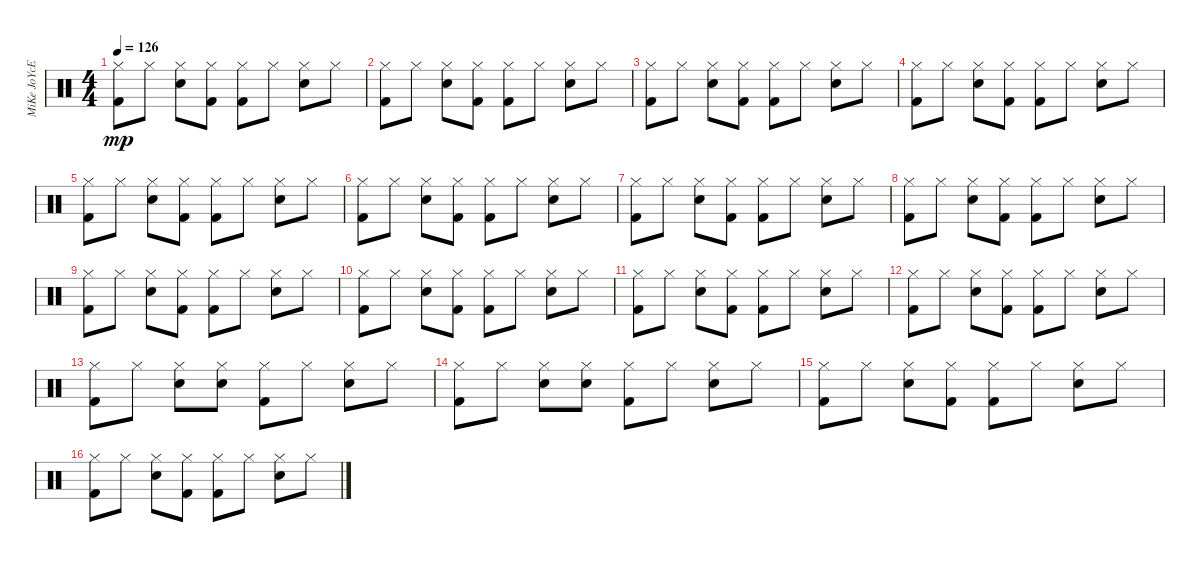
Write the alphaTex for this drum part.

\track ("MiKe JoYcE" "MiKe JoYcE") {instrument percussion}
\staff {score}
\articulation defaults
\ts (4 4)
\tempo 126
\clef neutral
\ks c
("Hi-Hat (closed)" "Kick (hit) 2").8{dy mp} "Hi-Hat (closed)".8 ("Hi-Hat (closed)" "Electric Snare (hit)").8 ("Hi-Hat (closed)" "Kick (hit) 2").8 ("Hi-Hat (closed)" "Kick (hit) 2").8 "Hi-Hat (closed)".8 ("Hi-Hat (closed)" "Electric Snare (hit)").8 "Hi-Hat (closed)".8 |
("Hi-Hat (closed)" "Kick (hit) 2").8 "Hi-Hat (closed)".8 ("Hi-Hat (closed)" "Electric Snare (hit)").8 ("Hi-Hat (closed)" "Kick (hit) 2").8 ("Hi-Hat (closed)" "Kick (hit) 2").8 "Hi-Hat (closed)".8 ("Hi-Hat (closed)" "Electric Snare (hit)").8 "Hi-Hat (closed)".8 |
("Hi-Hat (closed)" "Kick (hit) 2").8 "Hi-Hat (closed)".8 ("Hi-Hat (closed)" "Electric Snare (hit)").8 ("Hi-Hat (closed)" "Kick (hit) 2").8 ("Hi-Hat (closed)" "Kick (hit) 2").8 "Hi-Hat (closed)".8 ("Hi-Hat (closed)" "Electric Snare (hit)").8 "Hi-Hat (closed)".8 |
("Hi-Hat (closed)" "Kick (hit) 2").8 "Hi-Hat (closed)".8 ("Hi-Hat (closed)" "Electric Snare (hit)").8 ("Hi-Hat (closed)" "Kick (hit) 2").8 ("Hi-Hat (closed)" "Kick (hit) 2").8 "Hi-Hat (closed)".8 ("Hi-Hat (closed)" "Electric Snare (hit)").8 "Hi-Hat (closed)".8 |
("Hi-Hat (closed)" "Kick (hit) 2").8 "Hi-Hat (closed)".8 ("Hi-Hat (closed)" "Electric Snare (hit)").8 ("Hi-Hat (closed)" "Kick (hit) 2").8 ("Hi-Hat (closed)" "Kick (hit) 2").8 "Hi-Hat (closed)".8 ("Hi-Hat (closed)" "Electric Snare (hit)").8 "Hi-Hat (closed)".8 |
("Hi-Hat (closed)" "Kick (hit) 2").8 "Hi-Hat (closed)".8 ("Hi-Hat (closed)" "Electric Snare (hit)").8 ("Hi-Hat (closed)" "Kick (hit) 2").8 ("Hi-Hat (closed)" "Kick (hit) 2").8 "Hi-Hat (closed)".8 ("Hi-Hat (closed)" "Electric Snare (hit)").8 "Hi-Hat (closed)".8 |
("Hi-Hat (closed)" "Kick (hit) 2").8 "Hi-Hat (closed)".8 ("Hi-Hat (closed)" "Electric Snare (hit)").8 ("Hi-Hat (closed)" "Kick (hit) 2").8 ("Hi-Hat (closed)" "Kick (hit) 2").8 "Hi-Hat (closed)".8 ("Hi-Hat (closed)" "Electric Snare (hit)").8 "Hi-Hat (closed)".8 |
("Hi-Hat (closed)" "Kick (hit) 2").8 "Hi-Hat (closed)".8 ("Hi-Hat (closed)" "Electric Snare (hit)").8 ("Hi-Hat (closed)" "Kick (hit) 2").8 ("Hi-Hat (closed)" "Kick (hit) 2").8 "Hi-Hat (closed)".8 ("Hi-Hat (closed)" "Electric Snare (hit)").8 "Hi-Hat (closed)".8 |
("Hi-Hat (closed)" "Kick (hit) 2").8 "Hi-Hat (closed)".8 ("Hi-Hat (closed)" "Electric Snare (hit)").8 ("Hi-Hat (closed)" "Kick (hit) 2").8 ("Hi-Hat (closed)" "Kick (hit) 2").8 "Hi-Hat (closed)".8 ("Hi-Hat (closed)" "Electric Snare (hit)").8 "Hi-Hat (closed)".8 |
("Hi-Hat (closed)" "Kick (hit) 2").8 "Hi-Hat (closed)".8 ("Hi-Hat (closed)" "Electric Snare (hit)").8 ("Hi-Hat (closed)" "Kick (hit) 2").8 ("Hi-Hat (closed)" "Kick (hit) 2").8 "Hi-Hat (closed)".8 ("Hi-Hat (closed)" "Electric Snare (hit)").8 "Hi-Hat (closed)".8 |
("Hi-Hat (closed)" "Kick (hit) 2").8 "Hi-Hat (closed)".8 ("Hi-Hat (closed)" "Electric Snare (hit)").8 ("Hi-Hat (closed)" "Kick (hit) 2").8 ("Hi-Hat (closed)" "Kick (hit) 2").8 "Hi-Hat (closed)".8 ("Hi-Hat (closed)" "Electric Snare (hit)").8 "Hi-Hat (closed)".8 |
("Hi-Hat (closed)" "Kick (hit) 2").8 "Hi-Hat (closed)".8 ("Hi-Hat (closed)" "Electric Snare (hit)").8 ("Hi-Hat (closed)" "Kick (hit) 2").8 ("Hi-Hat (closed)" "Kick (hit) 2").8 "Hi-Hat (closed)".8 ("Hi-Hat (closed)" "Electric Snare (hit)").8 "Hi-Hat (closed)".8 |
("Hi-Hat (closed)" "Kick (hit) 2").8 "Hi-Hat (closed)".8 ("Hi-Hat (closed)" "Electric Snare (hit)").8 ("Hi-Hat (closed)" "Electric Snare (hit)").8 ("Hi-Hat (closed)" "Kick (hit) 2").8 "Hi-Hat (closed)".8 ("Hi-Hat (closed)" "Electric Snare (hit)").8 "Hi-Hat (closed)".8 |
("Hi-Hat (closed)" "Kick (hit) 2").8 "Hi-Hat (closed)".8 ("Hi-Hat (closed)" "Electric Snare (hit)").8 ("Hi-Hat (closed)" "Electric Snare (hit)").8 ("Hi-Hat (closed)" "Kick (hit) 2").8 "Hi-Hat (closed)".8 ("Hi-Hat (closed)" "Electric Snare (hit)").8 "Hi-Hat (closed)".8 |
("Hi-Hat (closed)" "Kick (hit) 2").8 "Hi-Hat (closed)".8 ("Hi-Hat (closed)" "Electric Snare (hit)").8 ("Hi-Hat (closed)" "Kick (hit) 2").8 ("Hi-Hat (closed)" "Kick (hit) 2").8 "Hi-Hat (closed)".8 ("Hi-Hat (closed)" "Electric Snare (hit)").8 "Hi-Hat (closed)".8 |
("Hi-Hat (closed)" "Kick (hit) 2").8 "Hi-Hat (closed)".8 ("Hi-Hat (closed)" "Electric Snare (hit)").8 ("Hi-Hat (closed)" "Kick (hit) 2").8 ("Hi-Hat (closed)" "Kick (hit) 2").8 "Hi-Hat (closed)".8 ("Hi-Hat (closed)" "Electric Snare (hit)").8 "Hi-Hat (closed)".8
